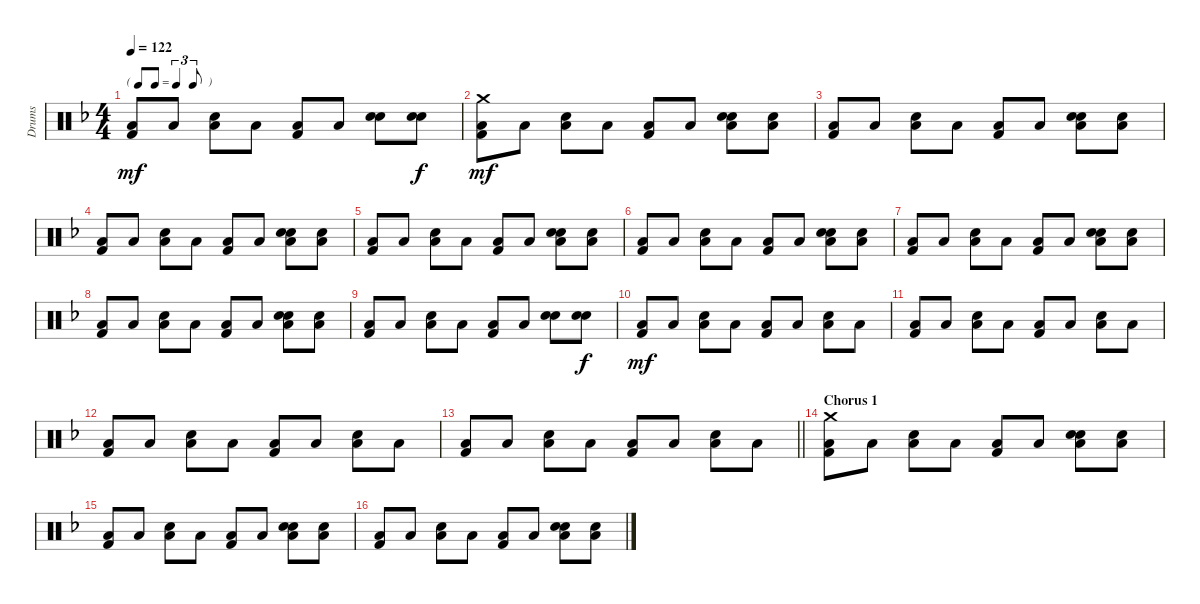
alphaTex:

\track ("Drums" "Drums") {instrument percussion}
\staff {score}
\articulation defaults
\ts (4 4)
\tf triplet8th
\tempo 122
\clef neutral
\ks dminor
("Low Floor Tom (hit)" "Kick (hit) 2").8{dy mf} "Low Floor Tom (hit)".8 ("Low Floor Tom (hit)" "Snare (hit) 2").8 "Low Floor Tom (hit)".8 ("Low Floor Tom (hit)" "Kick (hit) 2").8 "Low Floor Tom (hit)".8 ("Hand Clap (hit)" "Snare (hit) 2").8 ("Hand Clap (hit)" "Snare (hit) 2").8{dy f} |
("Crash medium (hit)" "Low Floor Tom (hit)" "Kick (hit) 2").8{dy mf} "Low Floor Tom (hit)".8 ("Low Floor Tom (hit)" "Snare (hit) 2").8 "Low Floor Tom (hit)".8 ("Low Floor Tom (hit)" "Kick (hit) 2").8 "Low Floor Tom (hit)".8 ("Hand Clap (hit)" "Low Floor Tom (hit)" "Snare (hit) 2").8 ("Hand Clap (hit)" "Low Floor Tom (hit)").8 |
("Low Floor Tom (hit)" "Kick (hit) 2").8 "Low Floor Tom (hit)".8 ("Low Floor Tom (hit)" "Snare (hit) 2").8 "Low Floor Tom (hit)".8 ("Low Floor Tom (hit)" "Kick (hit) 2").8 "Low Floor Tom (hit)".8 ("Hand Clap (hit)" "Low Floor Tom (hit)" "Snare (hit) 2").8 ("Hand Clap (hit)" "Low Floor Tom (hit)").8 |
("Low Floor Tom (hit)" "Kick (hit) 2").8 "Low Floor Tom (hit)".8 ("Low Floor Tom (hit)" "Snare (hit) 2").8 "Low Floor Tom (hit)".8 ("Low Floor Tom (hit)" "Kick (hit) 2").8 "Low Floor Tom (hit)".8 ("Hand Clap (hit)" "Low Floor Tom (hit)" "Snare (hit) 2").8 ("Hand Clap (hit)" "Low Floor Tom (hit)").8 |
("Low Floor Tom (hit)" "Kick (hit) 2").8 "Low Floor Tom (hit)".8 ("Low Floor Tom (hit)" "Snare (hit) 2").8 "Low Floor Tom (hit)".8 ("Low Floor Tom (hit)" "Kick (hit) 2").8 "Low Floor Tom (hit)".8 ("Hand Clap (hit)" "Low Floor Tom (hit)" "Snare (hit) 2").8 ("Hand Clap (hit)" "Low Floor Tom (hit)").8 |
("Low Floor Tom (hit)" "Kick (hit) 2").8 "Low Floor Tom (hit)".8 ("Low Floor Tom (hit)" "Snare (hit) 2").8 "Low Floor Tom (hit)".8 ("Low Floor Tom (hit)" "Kick (hit) 2").8 "Low Floor Tom (hit)".8 ("Hand Clap (hit)" "Low Floor Tom (hit)" "Snare (hit) 2").8 ("Hand Clap (hit)" "Low Floor Tom (hit)").8 |
("Low Floor Tom (hit)" "Kick (hit) 2").8 "Low Floor Tom (hit)".8 ("Low Floor Tom (hit)" "Snare (hit) 2").8 "Low Floor Tom (hit)".8 ("Low Floor Tom (hit)" "Kick (hit) 2").8 "Low Floor Tom (hit)".8 ("Hand Clap (hit)" "Low Floor Tom (hit)" "Snare (hit) 2").8 ("Hand Clap (hit)" "Low Floor Tom (hit)").8 |
("Low Floor Tom (hit)" "Kick (hit) 2").8 "Low Floor Tom (hit)".8 ("Low Floor Tom (hit)" "Snare (hit) 2").8 "Low Floor Tom (hit)".8 ("Low Floor Tom (hit)" "Kick (hit) 2").8 "Low Floor Tom (hit)".8 ("Hand Clap (hit)" "Low Floor Tom (hit)" "Snare (hit) 2").8 ("Hand Clap (hit)" "Low Floor Tom (hit)").8 |
("Low Floor Tom (hit)" "Kick (hit) 2").8 "Low Floor Tom (hit)".8 ("Low Floor Tom (hit)" "Snare (hit) 2").8 "Low Floor Tom (hit)".8 ("Low Floor Tom (hit)" "Kick (hit) 2").8 "Low Floor Tom (hit)".8 ("Hand Clap (hit)" "Snare (hit) 2").8 ("Hand Clap (hit)" "Snare (hit) 2").8{dy f} |
("Low Floor Tom (hit)" "Kick (hit) 2").8{dy mf} "Low Floor Tom (hit)".8 ("Low Floor Tom (hit)" "Snare (hit) 2").8 "Low Floor Tom (hit)".8 ("Low Floor Tom (hit)" "Kick (hit) 2").8 "Low Floor Tom (hit)".8 ("Low Floor Tom (hit)" "Snare (hit) 2").8 "Low Floor Tom (hit)".8 |
("Low Floor Tom (hit)" "Kick (hit) 2").8 "Low Floor Tom (hit)".8 ("Low Floor Tom (hit)" "Snare (hit) 2").8 "Low Floor Tom (hit)".8 ("Low Floor Tom (hit)" "Kick (hit) 2").8 "Low Floor Tom (hit)".8 ("Low Floor Tom (hit)" "Snare (hit) 2").8 "Low Floor Tom (hit)".8 |
("Low Floor Tom (hit)" "Kick (hit) 2").8 "Low Floor Tom (hit)".8 ("Low Floor Tom (hit)" "Snare (hit) 2").8 "Low Floor Tom (hit)".8 ("Low Floor Tom (hit)" "Kick (hit) 2").8 "Low Floor Tom (hit)".8 ("Low Floor Tom (hit)" "Snare (hit) 2").8 "Low Floor Tom (hit)".8 |
\barLineRight lightlight
("Low Floor Tom (hit)" "Kick (hit) 2").8 "Low Floor Tom (hit)".8 ("Low Floor Tom (hit)" "Snare (hit) 2").8 "Low Floor Tom (hit)".8 ("Low Floor Tom (hit)" "Kick (hit) 2").8 "Low Floor Tom (hit)".8 ("Low Floor Tom (hit)" "Snare (hit) 2").8 "Low Floor Tom (hit)".8 |
\section ("" "Chorus 1")
("Crash medium (hit)" "Low Floor Tom (hit)" "Kick (hit) 2").8 "Low Floor Tom (hit)".8 ("Low Floor Tom (hit)" "Snare (hit) 2").8 "Low Floor Tom (hit)".8 ("Low Floor Tom (hit)" "Kick (hit) 2").8 "Low Floor Tom (hit)".8 ("Hand Clap (hit)" "Low Floor Tom (hit)" "Snare (hit) 2").8 ("Hand Clap (hit)" "Low Floor Tom (hit)").8 |
("Low Floor Tom (hit)" "Kick (hit) 2").8 "Low Floor Tom (hit)".8 ("Low Floor Tom (hit)" "Snare (hit) 2").8 "Low Floor Tom (hit)".8 ("Low Floor Tom (hit)" "Kick (hit) 2").8 "Low Floor Tom (hit)".8 ("Hand Clap (hit)" "Low Floor Tom (hit)" "Snare (hit) 2").8 ("Hand Clap (hit)" "Low Floor Tom (hit)").8 |
("Low Floor Tom (hit)" "Kick (hit) 2").8 "Low Floor Tom (hit)".8 ("Low Floor Tom (hit)" "Snare (hit) 2").8 "Low Floor Tom (hit)".8 ("Low Floor Tom (hit)" "Kick (hit) 2").8 "Low Floor Tom (hit)".8 ("Hand Clap (hit)" "Low Floor Tom (hit)" "Snare (hit) 2").8 ("Hand Clap (hit)" "Low Floor Tom (hit)").8
